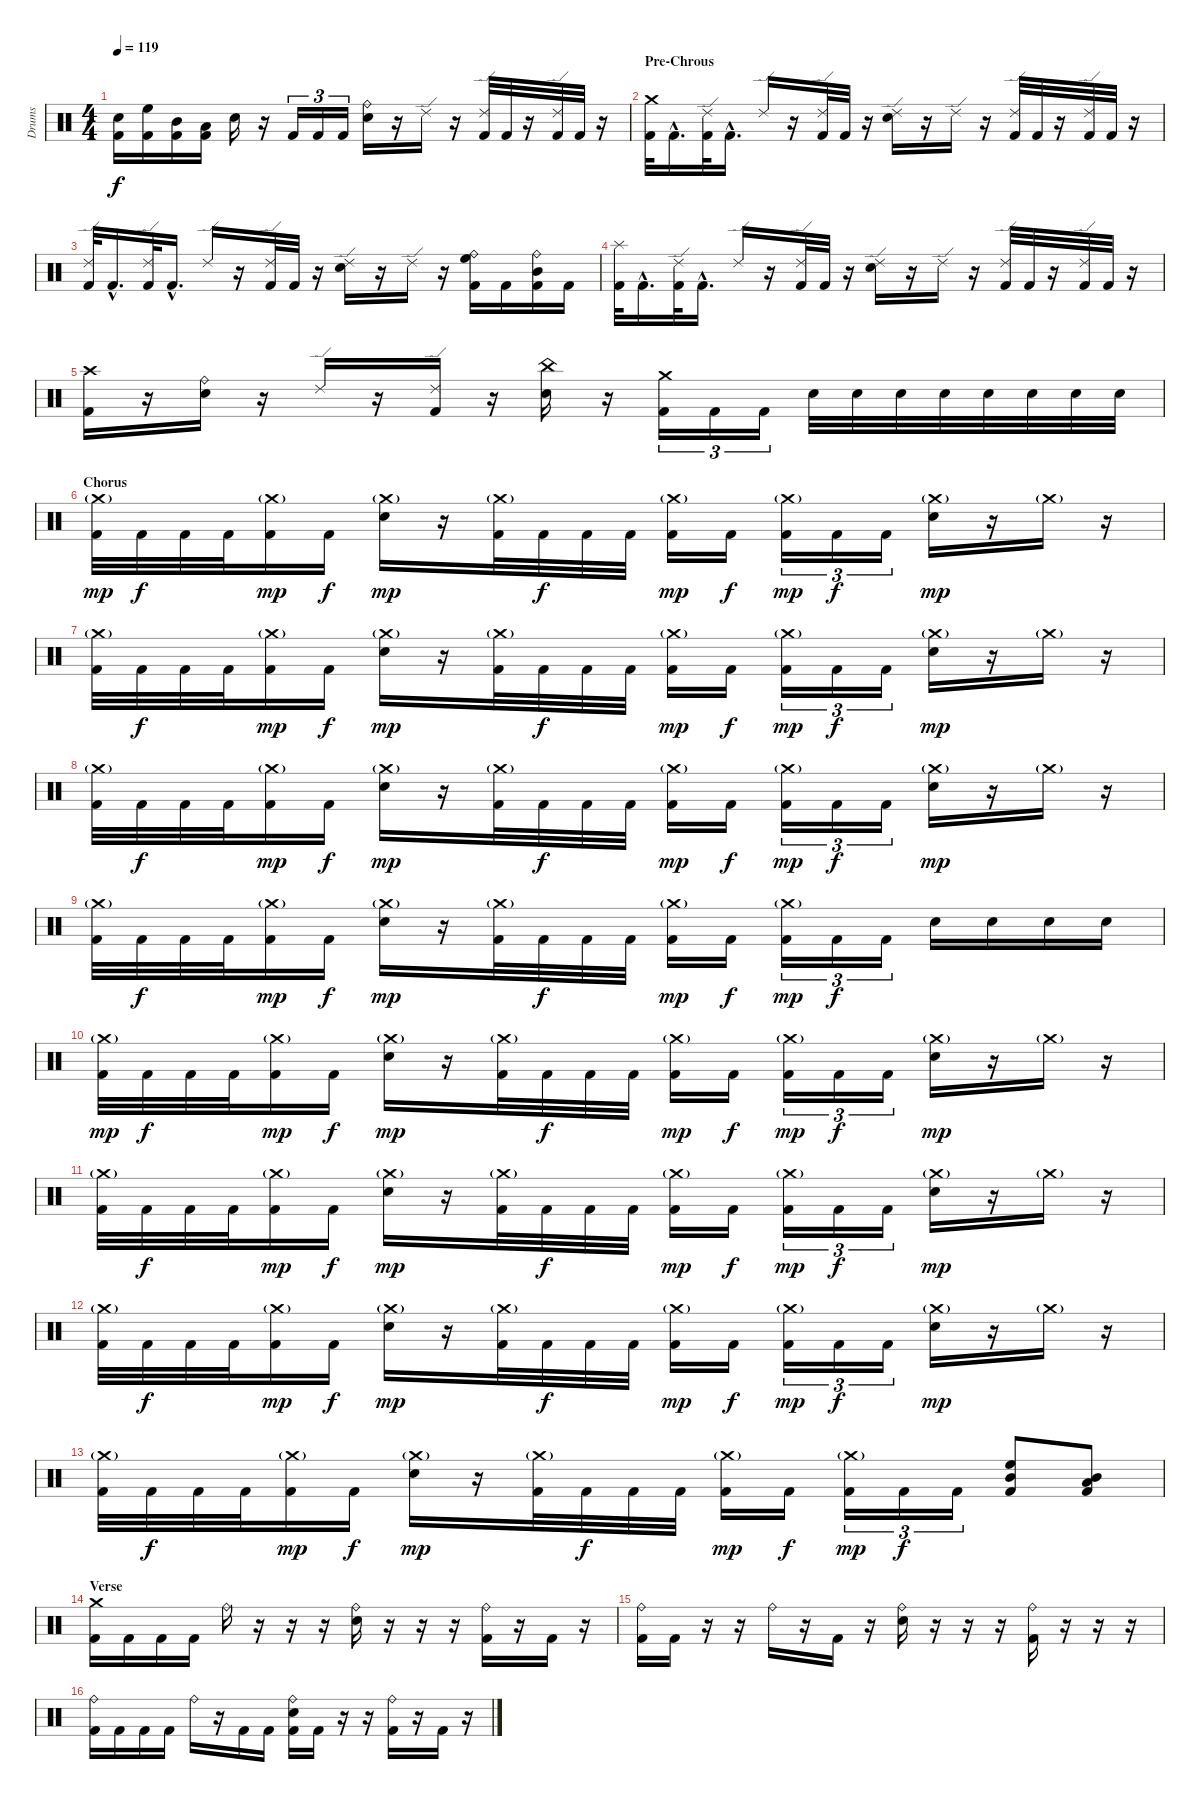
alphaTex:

\track ("Drums" "Drums") {instrument percussion}
\staff {score}
\articulation defaults
\ts (4 4)
\tempo 119
\clef neutral
\ks c
("Electric Snare (hit)" "Kick (hit) 2").16{dy f} ("High Floor Tom (hit)" "Kick (hit) 2").16 ("Mid Tom (hit)" "Kick (hit) 2").16 ("Low Tom (hit)" "Kick (hit) 2").16 "Electric Snare (hit)".16 r.16 "Kick (hit) 2".16{tu (3 2)} "Kick (hit) 2".16{tu (3 2)} "Kick (hit) 2".16{tu (3 2)} ("Ride (bell)" "Electric Snare (hit)").16 r.16 "Ride (edge) 2".16 r.16 ("Ride (edge) 2" "Kick (hit) 2").32 "Kick (hit) 2".32 r.16 ("Ride (edge) 2" "Kick (hit) 2").32 "Kick (hit) 2".32 r.16 |
\section ("" "Pre-Chrous")
("Crash medium (hit)" "Kick (hit) 2").32 "Kick (hit) 2"{hac}.16{d} ("Ride (edge) 2" "Kick (hit) 2").32 "Kick (hit) 2"{hac}.16{d} "Ride (edge) 2".16 r.16 ("Ride (edge) 2" "Kick (hit) 2").32 "Kick (hit) 2".32 r.16 ("Ride (edge) 2" "Electric Snare (hit)").16 r.16 "Ride (edge) 2".16 r.16 ("Ride (edge) 2" "Kick (hit) 2").32 "Kick (hit) 2".32 r.16 ("Ride (edge) 2" "Kick (hit) 2").32 "Kick (hit) 2".32 r.16 |
("Ride (edge) 2" "Kick (hit) 2").32 "Kick (hit) 2"{hac}.16{d} ("Ride (edge) 2" "Kick (hit) 2").32 "Kick (hit) 2"{hac}.16{d} "Ride (edge) 2".16 r.16 ("Ride (edge) 2" "Kick (hit) 2").32 "Kick (hit) 2".32 r.16 ("Ride (edge) 2" "Electric Snare (hit)").16 r.16 "Ride (edge) 2".16 r.16 ("Ride (bell)" "High Floor Tom (hit)" "Kick (hit) 2").16 "Kick (hit) 2".16 ("Ride (bell)" "Mid Tom (hit)" "Kick (hit) 2").16 "Kick (hit) 2".16 |
("Splash (hit)" "Kick (hit) 2").32 "Kick (hit) 2"{hac}.16{d} ("Ride (edge) 2" "Kick (hit) 2").32 "Kick (hit) 2"{hac}.16{d} "Ride (edge) 2".16 r.16 ("Ride (edge) 2" "Kick (hit) 2").32 "Kick (hit) 2".32 r.16 ("Ride (edge) 2" "Electric Snare (hit)").16 r.16 "Ride (edge) 2".16 r.16 ("Ride (edge) 2" "Kick (hit) 2").32 "Kick (hit) 2".32 r.16 ("Ride (edge) 2" "Kick (hit) 2").32 "Kick (hit) 2".32 r.16 |
("Crash high (hit)" "Kick (hit) 2").16 r.16 ("Ride (bell)" "Electric Snare (hit)").16 r.16 "Ride (edge) 2".16 r.16 ("Ride (edge) 2" "Kick (hit) 2").16 r.16 ("China (hit)" "Electric Snare (hit)").16 r.16 ("Crash medium (hit)" "Kick (hit) 2").16{tu (3 2)} "Kick (hit) 2".16{tu (3 2)} "Kick (hit) 2".16{tu (3 2)} "Electric Snare (hit)".32 "Electric Snare (hit)".32 "Electric Snare (hit)".32 "Electric Snare (hit)".32 "Electric Snare (hit)".32 "Electric Snare (hit)".32 "Electric Snare (hit)".32 "Electric Snare (hit)".32 |
\section ("" "Chorus")
("Crash medium (hit)"{g} "Kick (hit) 2").32{dy mp} "Kick (hit) 2".32{dy f} "Kick (hit) 2".32 "Kick (hit) 2".32 ("Crash medium (hit)"{g} "Kick (hit) 2").16{dy mp} "Kick (hit) 2".16{dy f} ("Crash medium (hit)"{g} "Electric Snare (hit)").16{dy mp} r.16 ("Crash medium (hit)"{g} "Kick (hit) 2").32 "Kick (hit) 2".32{dy f} "Kick (hit) 2".32 "Kick (hit) 2".32 ("Crash medium (hit)"{g} "Kick (hit) 2").16{dy mp} "Kick (hit) 2".16{dy f} ("Crash medium (hit)"{g} "Kick (hit) 2").16{tu (3 2) dy mp} "Kick (hit) 2".16{tu (3 2) dy f} "Kick (hit) 2".16{tu (3 2)} ("Crash medium (hit)"{g} "Electric Snare (hit)").16{dy mp} r.16 "Crash medium (hit)"{g}.16 r.16 |
("Crash medium (hit)"{g} "Kick (hit) 2").32 "Kick (hit) 2".32{dy f} "Kick (hit) 2".32 "Kick (hit) 2".32 ("Crash medium (hit)"{g} "Kick (hit) 2").16{dy mp} "Kick (hit) 2".16{dy f} ("Crash medium (hit)"{g} "Electric Snare (hit)").16{dy mp} r.16 ("Crash medium (hit)"{g} "Kick (hit) 2").32 "Kick (hit) 2".32{dy f} "Kick (hit) 2".32 "Kick (hit) 2".32 ("Crash medium (hit)"{g} "Kick (hit) 2").16{dy mp} "Kick (hit) 2".16{dy f} ("Crash medium (hit)"{g} "Kick (hit) 2").16{tu (3 2) dy mp} "Kick (hit) 2".16{tu (3 2) dy f} "Kick (hit) 2".16{tu (3 2)} ("Crash medium (hit)"{g} "Electric Snare (hit)").16{dy mp} r.16 "Crash medium (hit)"{g}.16 r.16 |
("Crash medium (hit)"{g} "Kick (hit) 2").32 "Kick (hit) 2".32{dy f} "Kick (hit) 2".32 "Kick (hit) 2".32 ("Crash medium (hit)"{g} "Kick (hit) 2").16{dy mp} "Kick (hit) 2".16{dy f} ("Crash medium (hit)"{g} "Electric Snare (hit)").16{dy mp} r.16 ("Crash medium (hit)"{g} "Kick (hit) 2").32 "Kick (hit) 2".32{dy f} "Kick (hit) 2".32 "Kick (hit) 2".32 ("Crash medium (hit)"{g} "Kick (hit) 2").16{dy mp} "Kick (hit) 2".16{dy f} ("Crash medium (hit)"{g} "Kick (hit) 2").16{tu (3 2) dy mp} "Kick (hit) 2".16{tu (3 2) dy f} "Kick (hit) 2".16{tu (3 2)} ("Crash medium (hit)"{g} "Electric Snare (hit)").16{dy mp} r.16 "Crash medium (hit)"{g}.16 r.16 |
("Crash medium (hit)"{g} "Kick (hit) 2").32 "Kick (hit) 2".32{dy f} "Kick (hit) 2".32 "Kick (hit) 2".32 ("Crash medium (hit)"{g} "Kick (hit) 2").16{dy mp} "Kick (hit) 2".16{dy f} ("Crash medium (hit)"{g} "Electric Snare (hit)").16{dy mp} r.16 ("Crash medium (hit)"{g} "Kick (hit) 2").32 "Kick (hit) 2".32{dy f} "Kick (hit) 2".32 "Kick (hit) 2".32 ("Crash medium (hit)"{g} "Kick (hit) 2").16{dy mp} "Kick (hit) 2".16{dy f} ("Crash medium (hit)"{g} "Kick (hit) 2").16{tu (3 2) dy mp} "Kick (hit) 2".16{tu (3 2) dy f} "Kick (hit) 2".16{tu (3 2)} "Electric Snare (hit)".16 "Electric Snare (hit)".16 "Electric Snare (hit)".16 "Electric Snare (hit)".16 |
("Crash medium (hit)"{g} "Kick (hit) 2").32{dy mp} "Kick (hit) 2".32{dy f} "Kick (hit) 2".32 "Kick (hit) 2".32 ("Crash medium (hit)"{g} "Kick (hit) 2").16{dy mp} "Kick (hit) 2".16{dy f} ("Crash medium (hit)"{g} "Electric Snare (hit)").16{dy mp} r.16 ("Crash medium (hit)"{g} "Kick (hit) 2").32 "Kick (hit) 2".32{dy f} "Kick (hit) 2".32 "Kick (hit) 2".32 ("Crash medium (hit)"{g} "Kick (hit) 2").16{dy mp} "Kick (hit) 2".16{dy f} ("Crash medium (hit)"{g} "Kick (hit) 2").16{tu (3 2) dy mp} "Kick (hit) 2".16{tu (3 2) dy f} "Kick (hit) 2".16{tu (3 2)} ("Crash medium (hit)"{g} "Electric Snare (hit)").16{dy mp} r.16 "Crash medium (hit)"{g}.16 r.16 |
("Crash medium (hit)"{g} "Kick (hit) 2").32 "Kick (hit) 2".32{dy f} "Kick (hit) 2".32 "Kick (hit) 2".32 ("Crash medium (hit)"{g} "Kick (hit) 2").16{dy mp} "Kick (hit) 2".16{dy f} ("Crash medium (hit)"{g} "Electric Snare (hit)").16{dy mp} r.16 ("Crash medium (hit)"{g} "Kick (hit) 2").32 "Kick (hit) 2".32{dy f} "Kick (hit) 2".32 "Kick (hit) 2".32 ("Crash medium (hit)"{g} "Kick (hit) 2").16{dy mp} "Kick (hit) 2".16{dy f} ("Crash medium (hit)"{g} "Kick (hit) 2").16{tu (3 2) dy mp} "Kick (hit) 2".16{tu (3 2) dy f} "Kick (hit) 2".16{tu (3 2)} ("Crash medium (hit)"{g} "Electric Snare (hit)").16{dy mp} r.16 "Crash medium (hit)"{g}.16 r.16 |
("Crash medium (hit)"{g} "Kick (hit) 2").32 "Kick (hit) 2".32{dy f} "Kick (hit) 2".32 "Kick (hit) 2".32 ("Crash medium (hit)"{g} "Kick (hit) 2").16{dy mp} "Kick (hit) 2".16{dy f} ("Crash medium (hit)"{g} "Electric Snare (hit)").16{dy mp} r.16 ("Crash medium (hit)"{g} "Kick (hit) 2").32 "Kick (hit) 2".32{dy f} "Kick (hit) 2".32 "Kick (hit) 2".32 ("Crash medium (hit)"{g} "Kick (hit) 2").16{dy mp} "Kick (hit) 2".16{dy f} ("Crash medium (hit)"{g} "Kick (hit) 2").16{tu (3 2) dy mp} "Kick (hit) 2".16{tu (3 2) dy f} "Kick (hit) 2".16{tu (3 2)} ("Crash medium (hit)"{g} "Electric Snare (hit)").16{dy mp} r.16 "Crash medium (hit)"{g}.16 r.16 |
("Crash medium (hit)"{g} "Kick (hit) 2").32 "Kick (hit) 2".32{dy f} "Kick (hit) 2".32 "Kick (hit) 2".32 ("Crash medium (hit)"{g} "Kick (hit) 2").16{dy mp} "Kick (hit) 2".16{dy f} ("Crash medium (hit)"{g} "Electric Snare (hit)").16{dy mp} r.16 ("Crash medium (hit)"{g} "Kick (hit) 2").32 "Kick (hit) 2".32{dy f} "Kick (hit) 2".32 "Kick (hit) 2".32 ("Crash medium (hit)"{g} "Kick (hit) 2").16{dy mp} "Kick (hit) 2".16{dy f} ("Crash medium (hit)"{g} "Kick (hit) 2").16{tu (3 2) dy mp} "Kick (hit) 2".16{tu (3 2) dy f} "Kick (hit) 2".16{tu (3 2)} ("High Floor Tom (hit)" "Mid Tom (hit)" "Kick (hit) 2").8 ("Mid Tom (hit)" "Low Tom (hit)" "Kick (hit) 2").8 |
\section ("" "Verse")
("Crash medium (hit)" "Kick (hit) 2").16 "Kick (hit) 2".16 "Kick (hit) 2".16 "Kick (hit) 2".16 "Ride (bell)".16 r.16 r.16 r.16 ("Ride (bell)" "Electric Snare (hit)").16 r.16 r.16 r.16 ("Ride (bell)" "Kick (hit) 2").16 r.16 "Kick (hit) 2".16 r.16 |
("Ride (bell)" "Kick (hit) 2").16 "Kick (hit) 2".16 r.16 r.16 "Ride (bell)".16 r.16 "Kick (hit) 2".16 r.16 ("Ride (bell)" "Electric Snare (hit)").16 r.16 r.16 r.16 ("Ride (bell)" "Kick (hit) 2").16 r.16 r.16 r.16 |
("Ride (bell)" "Kick (hit) 2").16 "Kick (hit) 2".16 "Kick (hit) 2".16 "Kick (hit) 2".16 "Ride (bell)".16 r.16 "Kick (hit) 2".16 "Kick (hit) 2".16 ("Ride (bell)" "Electric Snare (hit)" "Kick (hit) 2").16 "Kick (hit) 2".16 r.16 r.16 ("Ride (bell)" "Kick (hit) 2").16 r.16 "Kick (hit) 2".16 r.16
